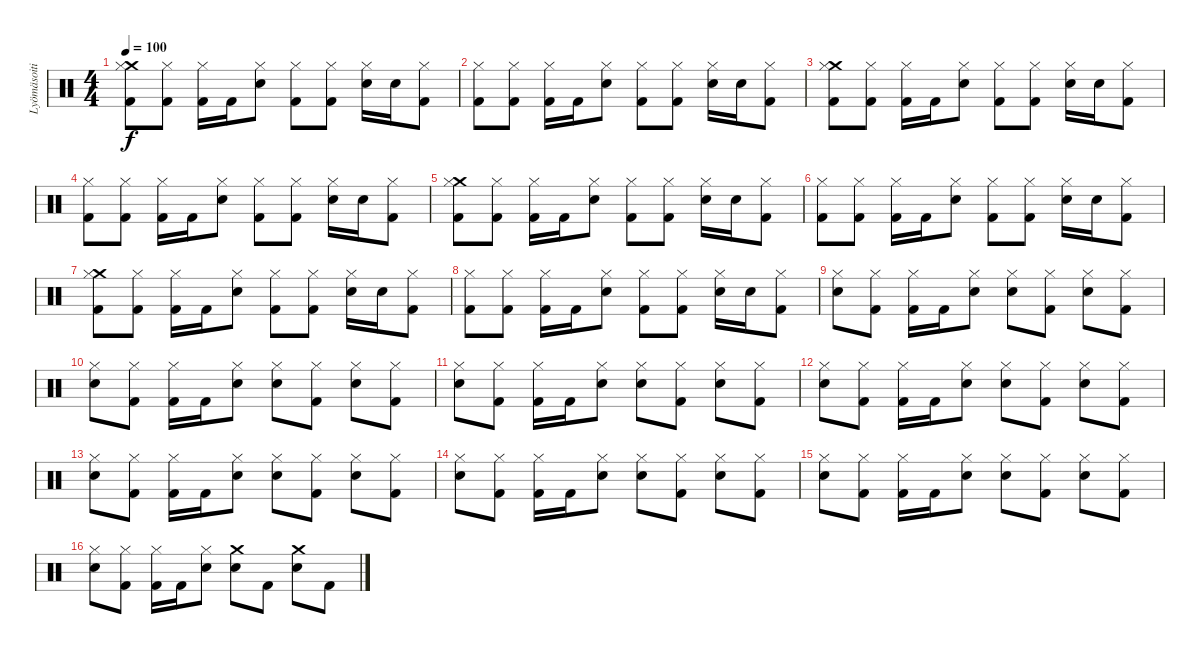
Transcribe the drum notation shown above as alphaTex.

\track ("Lyömäsoitin" "Lyömäsoiti") {instrument percussion}
\staff {score}
\articulation defaults
\ts (4 4)
\tempo 100
\clef neutral
\ks c
("Crash medium (hit)" "Hi-Hat (closed)" "Kick (hit) 2").8{dy f} ("Hi-Hat (closed)" "Kick (hit) 2").8 ("Hi-Hat (closed)" "Kick (hit) 2").16 "Kick (hit) 2".16 ("Hi-Hat (closed)" "Snare (hit) 2").8 ("Hi-Hat (closed)" "Kick (hit) 2").8 ("Hi-Hat (closed)" "Kick (hit) 2").8 ("Hi-Hat (closed)" "Snare (hit) 2").16 "Snare (hit) 2".16 ("Hi-Hat (closed)" "Kick (hit) 2").8 |
("Hi-Hat (closed)" "Kick (hit) 2").8 ("Hi-Hat (closed)" "Kick (hit) 2").8 ("Hi-Hat (closed)" "Kick (hit) 2").16 "Kick (hit) 2".16 ("Hi-Hat (closed)" "Snare (hit) 2").8 ("Hi-Hat (closed)" "Kick (hit) 2").8 ("Hi-Hat (closed)" "Kick (hit) 2").8 ("Hi-Hat (closed)" "Snare (hit) 2").16 "Snare (hit) 2".16 ("Hi-Hat (closed)" "Kick (hit) 2").8 |
("Crash medium (hit)" "Hi-Hat (closed)" "Kick (hit) 2").8 ("Hi-Hat (closed)" "Kick (hit) 2").8 ("Hi-Hat (closed)" "Kick (hit) 2").16 "Kick (hit) 2".16 ("Hi-Hat (closed)" "Snare (hit) 2").8 ("Hi-Hat (closed)" "Kick (hit) 2").8 ("Hi-Hat (closed)" "Kick (hit) 2").8 ("Hi-Hat (closed)" "Snare (hit) 2").16 "Snare (hit) 2".16 ("Hi-Hat (closed)" "Kick (hit) 2").8 |
("Hi-Hat (closed)" "Kick (hit) 2").8 ("Hi-Hat (closed)" "Kick (hit) 2").8 ("Hi-Hat (closed)" "Kick (hit) 2").16 "Kick (hit) 2".16 ("Hi-Hat (closed)" "Snare (hit) 2").8 ("Hi-Hat (closed)" "Kick (hit) 2").8 ("Hi-Hat (closed)" "Kick (hit) 2").8 ("Hi-Hat (closed)" "Snare (hit) 2").16 "Snare (hit) 2".16 ("Hi-Hat (closed)" "Kick (hit) 2").8 |
("Crash medium (hit)" "Hi-Hat (closed)" "Kick (hit) 2").8 ("Hi-Hat (closed)" "Kick (hit) 2").8 ("Hi-Hat (closed)" "Kick (hit) 2").16 "Kick (hit) 2".16 ("Hi-Hat (closed)" "Snare (hit) 2").8 ("Hi-Hat (closed)" "Kick (hit) 2").8 ("Hi-Hat (closed)" "Kick (hit) 2").8 ("Hi-Hat (closed)" "Snare (hit) 2").16 "Snare (hit) 2".16 ("Hi-Hat (closed)" "Kick (hit) 2").8 |
("Hi-Hat (closed)" "Kick (hit) 2").8 ("Hi-Hat (closed)" "Kick (hit) 2").8 ("Hi-Hat (closed)" "Kick (hit) 2").16 "Kick (hit) 2".16 ("Hi-Hat (closed)" "Snare (hit) 2").8 ("Hi-Hat (closed)" "Kick (hit) 2").8 ("Hi-Hat (closed)" "Kick (hit) 2").8 ("Hi-Hat (closed)" "Snare (hit) 2").16 "Snare (hit) 2".16 ("Hi-Hat (closed)" "Kick (hit) 2").8 |
("Crash medium (hit)" "Hi-Hat (closed)" "Kick (hit) 2").8 ("Hi-Hat (closed)" "Kick (hit) 2").8 ("Hi-Hat (closed)" "Kick (hit) 2").16 "Kick (hit) 2".16 ("Hi-Hat (closed)" "Snare (hit) 2").8 ("Hi-Hat (closed)" "Kick (hit) 2").8 ("Hi-Hat (closed)" "Kick (hit) 2").8 ("Hi-Hat (closed)" "Snare (hit) 2").16 "Snare (hit) 2".16 ("Hi-Hat (closed)" "Kick (hit) 2").8 |
("Hi-Hat (closed)" "Kick (hit) 2").8 ("Hi-Hat (closed)" "Kick (hit) 2").8 ("Hi-Hat (closed)" "Kick (hit) 2").16 "Kick (hit) 2".16 ("Hi-Hat (closed)" "Snare (hit) 2").8 ("Hi-Hat (closed)" "Kick (hit) 2").8 ("Hi-Hat (closed)" "Kick (hit) 2").8 ("Hi-Hat (closed)" "Snare (hit) 2").16 "Snare (hit) 2".16 ("Hi-Hat (closed)" "Kick (hit) 2").8 |
("Hi-Hat (closed)" "Snare (hit) 2").8 ("Hi-Hat (closed)" "Kick (hit) 2").8 ("Hi-Hat (closed)" "Kick (hit) 2").16 "Kick (hit) 2".16 ("Hi-Hat (closed)" "Snare (hit) 2").8 ("Hi-Hat (closed)" "Snare (hit) 2").8 ("Hi-Hat (closed)" "Kick (hit) 2").8 ("Hi-Hat (closed)" "Snare (hit) 2").8 ("Hi-Hat (closed)" "Kick (hit) 2").8 |
("Hi-Hat (closed)" "Snare (hit) 2").8 ("Hi-Hat (closed)" "Kick (hit) 2").8 ("Hi-Hat (closed)" "Kick (hit) 2").16 "Kick (hit) 2".16 ("Hi-Hat (closed)" "Snare (hit) 2").8 ("Hi-Hat (closed)" "Snare (hit) 2").8 ("Hi-Hat (closed)" "Kick (hit) 2").8 ("Hi-Hat (closed)" "Snare (hit) 2").8 ("Hi-Hat (closed)" "Kick (hit) 2").8 |
("Hi-Hat (closed)" "Snare (hit) 2").8 ("Hi-Hat (closed)" "Kick (hit) 2").8 ("Hi-Hat (closed)" "Kick (hit) 2").16 "Kick (hit) 2".16 ("Hi-Hat (closed)" "Snare (hit) 2").8 ("Hi-Hat (closed)" "Snare (hit) 2").8 ("Hi-Hat (closed)" "Kick (hit) 2").8 ("Hi-Hat (closed)" "Snare (hit) 2").8 ("Hi-Hat (closed)" "Kick (hit) 2").8 |
("Hi-Hat (closed)" "Snare (hit) 2").8 ("Hi-Hat (closed)" "Kick (hit) 2").8 ("Hi-Hat (closed)" "Kick (hit) 2").16 "Kick (hit) 2".16 ("Hi-Hat (closed)" "Snare (hit) 2").8 ("Hi-Hat (closed)" "Snare (hit) 2").8 ("Hi-Hat (closed)" "Kick (hit) 2").8 ("Hi-Hat (closed)" "Snare (hit) 2").8 ("Hi-Hat (closed)" "Kick (hit) 2").8 |
("Hi-Hat (closed)" "Snare (hit) 2").8 ("Hi-Hat (closed)" "Kick (hit) 2").8 ("Hi-Hat (closed)" "Kick (hit) 2").16 "Kick (hit) 2".16 ("Hi-Hat (closed)" "Snare (hit) 2").8 ("Hi-Hat (closed)" "Snare (hit) 2").8 ("Hi-Hat (closed)" "Kick (hit) 2").8 ("Hi-Hat (closed)" "Snare (hit) 2").8 ("Hi-Hat (closed)" "Kick (hit) 2").8 |
("Hi-Hat (closed)" "Snare (hit) 2").8 ("Hi-Hat (closed)" "Kick (hit) 2").8 ("Hi-Hat (closed)" "Kick (hit) 2").16 "Kick (hit) 2".16 ("Hi-Hat (closed)" "Snare (hit) 2").8 ("Hi-Hat (closed)" "Snare (hit) 2").8 ("Hi-Hat (closed)" "Kick (hit) 2").8 ("Hi-Hat (closed)" "Snare (hit) 2").8 ("Hi-Hat (closed)" "Kick (hit) 2").8 |
("Hi-Hat (closed)" "Snare (hit) 2").8 ("Hi-Hat (closed)" "Kick (hit) 2").8 ("Hi-Hat (closed)" "Kick (hit) 2").16 "Kick (hit) 2".16 ("Hi-Hat (closed)" "Snare (hit) 2").8 ("Hi-Hat (closed)" "Snare (hit) 2").8 ("Hi-Hat (closed)" "Kick (hit) 2").8 ("Hi-Hat (closed)" "Snare (hit) 2").8 ("Hi-Hat (closed)" "Kick (hit) 2").8 |
("Hi-Hat (closed)" "Snare (hit) 2").8 ("Hi-Hat (closed)" "Kick (hit) 2").8 ("Hi-Hat (closed)" "Kick (hit) 2").16 "Kick (hit) 2".16 ("Hi-Hat (closed)" "Snare (hit) 2").8 ("Crash medium (hit)" "Snare (hit) 2").8 "Kick (hit) 2".8 ("Crash medium (hit)" "Snare (hit) 2").8 "Kick (hit) 2".8
